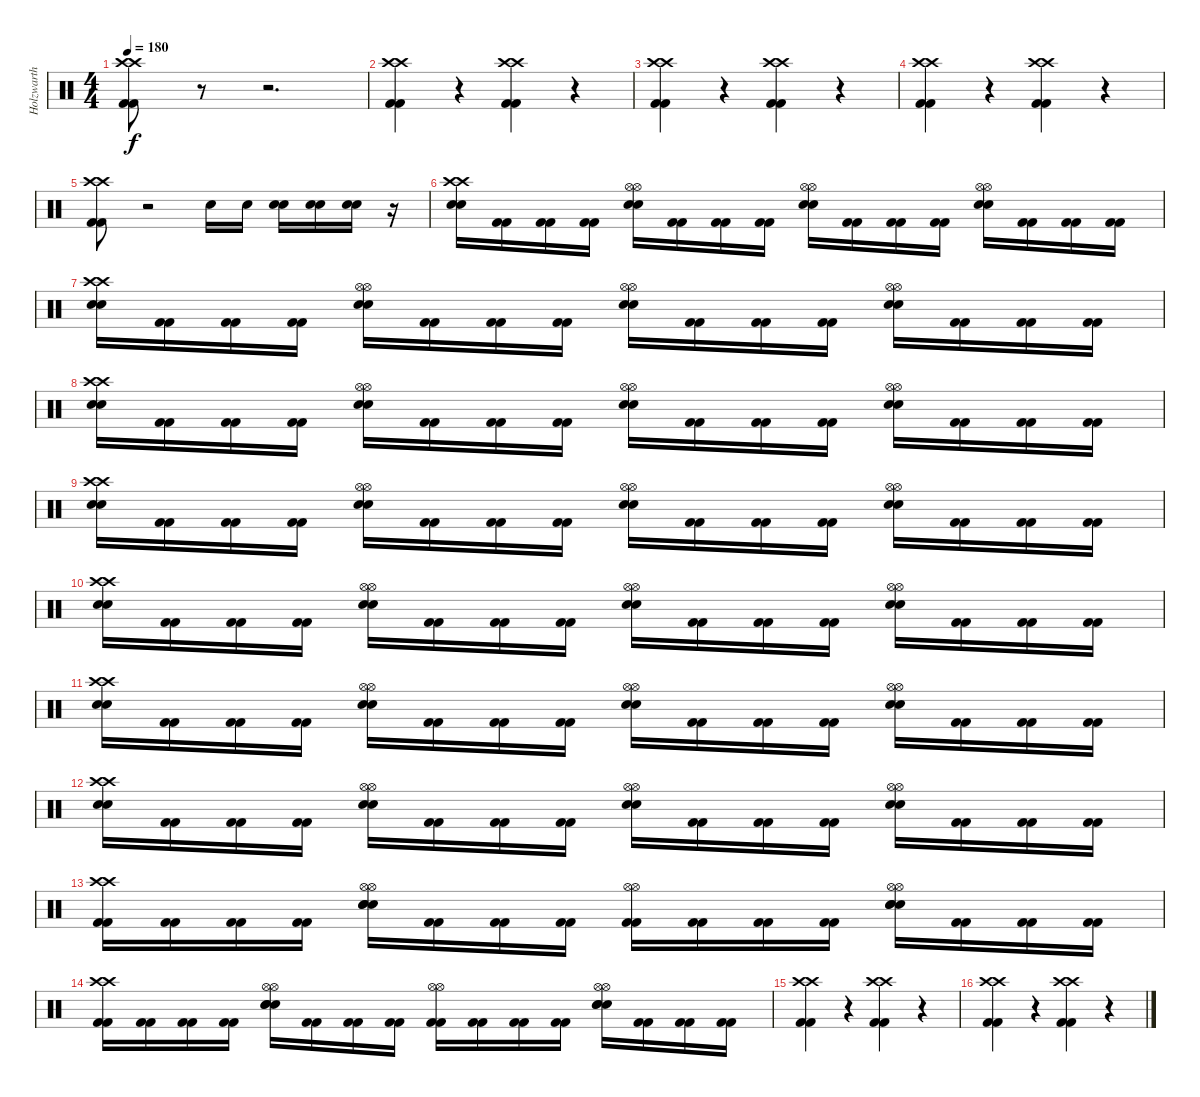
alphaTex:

\track ("Holzwarth" "Holzwarth") {instrument percussion}
\staff {score}
\articulation defaults
\ts (4 4)
\tempo 180
\clef neutral
\ks c
("Kick (hit) 2" "Kick (hit) 2" "Crash high (hit)" "Crash high (hit)").8{dy f} r.8 r.2{d} |
("Kick (hit) 2" "Kick (hit) 2" "Crash high (hit)" "Crash high (hit)").4 r.4 ("Kick (hit) 2" "Kick (hit) 2" "Crash high (hit)" "Crash high (hit)").4 r.4 |
("Kick (hit) 2" "Kick (hit) 2" "Crash high (hit)" "Crash high (hit)").4 r.4 ("Kick (hit) 2" "Kick (hit) 2" "Crash high (hit)" "Crash high (hit)").4 r.4 |
("Kick (hit) 2" "Kick (hit) 2" "Crash high (hit)" "Crash high (hit)").4 r.4 ("Kick (hit) 2" "Kick (hit) 2" "Crash high (hit)" "Crash high (hit)").4 r.4 |
("Kick (hit) 2" "Kick (hit) 2" "Crash high (hit)" "Crash high (hit)").8 r.2 "Snare (hit) 2".16 "Snare (hit) 2".16 ("Snare (hit) 2" "Snare (hit) 2").16 ("Snare (hit) 2" "Snare (hit) 2").16 ("Snare (hit) 2" "Snare (hit) 2").16 r.16 |
("Snare (hit) 2" "Snare (hit) 2" "Crash high (hit)" "Crash high (hit)").16 ("Kick (hit) 2" "Kick (hit) 2").16 ("Kick (hit) 2" "Kick (hit) 2").16 ("Kick (hit) 2" "Kick (hit) 2").16 ("Snare (hit) 2" "Snare (hit) 2" "Hi-Hat (open)" "Hi-Hat (open)").16 ("Kick (hit) 2" "Kick (hit) 2").16 ("Kick (hit) 2" "Kick (hit) 2").16 ("Kick (hit) 2" "Kick (hit) 2").16 ("Snare (hit) 2" "Snare (hit) 2" "Hi-Hat (open)" "Hi-Hat (open)").16 ("Kick (hit) 2" "Kick (hit) 2").16 ("Kick (hit) 2" "Kick (hit) 2").16 ("Kick (hit) 2" "Kick (hit) 2").16 ("Snare (hit) 2" "Snare (hit) 2" "Hi-Hat (open)" "Hi-Hat (open)").16 ("Kick (hit) 2" "Kick (hit) 2").16 ("Kick (hit) 2" "Kick (hit) 2").16 ("Kick (hit) 2" "Kick (hit) 2").16 |
("Snare (hit) 2" "Snare (hit) 2" "Crash high (hit)" "Crash high (hit)").16 ("Kick (hit) 2" "Kick (hit) 2").16 ("Kick (hit) 2" "Kick (hit) 2").16 ("Kick (hit) 2" "Kick (hit) 2").16 ("Snare (hit) 2" "Snare (hit) 2" "Hi-Hat (open)" "Hi-Hat (open)").16 ("Kick (hit) 2" "Kick (hit) 2").16 ("Kick (hit) 2" "Kick (hit) 2").16 ("Kick (hit) 2" "Kick (hit) 2").16 ("Snare (hit) 2" "Snare (hit) 2" "Hi-Hat (open)" "Hi-Hat (open)").16 ("Kick (hit) 2" "Kick (hit) 2").16 ("Kick (hit) 2" "Kick (hit) 2").16 ("Kick (hit) 2" "Kick (hit) 2").16 ("Snare (hit) 2" "Snare (hit) 2" "Hi-Hat (open)" "Hi-Hat (open)").16 ("Kick (hit) 2" "Kick (hit) 2").16 ("Kick (hit) 2" "Kick (hit) 2").16 ("Kick (hit) 2" "Kick (hit) 2").16 |
("Snare (hit) 2" "Snare (hit) 2" "Crash high (hit)" "Crash high (hit)").16 ("Kick (hit) 2" "Kick (hit) 2").16 ("Kick (hit) 2" "Kick (hit) 2").16 ("Kick (hit) 2" "Kick (hit) 2").16 ("Snare (hit) 2" "Snare (hit) 2" "Hi-Hat (open)" "Hi-Hat (open)").16 ("Kick (hit) 2" "Kick (hit) 2").16 ("Kick (hit) 2" "Kick (hit) 2").16 ("Kick (hit) 2" "Kick (hit) 2").16 ("Snare (hit) 2" "Snare (hit) 2" "Hi-Hat (open)" "Hi-Hat (open)").16 ("Kick (hit) 2" "Kick (hit) 2").16 ("Kick (hit) 2" "Kick (hit) 2").16 ("Kick (hit) 2" "Kick (hit) 2").16 ("Snare (hit) 2" "Snare (hit) 2" "Hi-Hat (open)" "Hi-Hat (open)").16 ("Kick (hit) 2" "Kick (hit) 2").16 ("Kick (hit) 2" "Kick (hit) 2").16 ("Kick (hit) 2" "Kick (hit) 2").16 |
("Snare (hit) 2" "Snare (hit) 2" "Crash high (hit)" "Crash high (hit)").16 ("Kick (hit) 2" "Kick (hit) 2").16 ("Kick (hit) 2" "Kick (hit) 2").16 ("Kick (hit) 2" "Kick (hit) 2").16 ("Snare (hit) 2" "Snare (hit) 2" "Hi-Hat (open)" "Hi-Hat (open)").16 ("Kick (hit) 2" "Kick (hit) 2").16 ("Kick (hit) 2" "Kick (hit) 2").16 ("Kick (hit) 2" "Kick (hit) 2").16 ("Snare (hit) 2" "Snare (hit) 2" "Hi-Hat (open)" "Hi-Hat (open)").16 ("Kick (hit) 2" "Kick (hit) 2").16 ("Kick (hit) 2" "Kick (hit) 2").16 ("Kick (hit) 2" "Kick (hit) 2").16 ("Snare (hit) 2" "Snare (hit) 2" "Hi-Hat (open)" "Hi-Hat (open)").16 ("Kick (hit) 2" "Kick (hit) 2").16 ("Kick (hit) 2" "Kick (hit) 2").16 ("Kick (hit) 2" "Kick (hit) 2").16 |
("Snare (hit) 2" "Snare (hit) 2" "Crash high (hit)" "Crash high (hit)").16 ("Kick (hit) 2" "Kick (hit) 2").16 ("Kick (hit) 2" "Kick (hit) 2").16 ("Kick (hit) 2" "Kick (hit) 2").16 ("Snare (hit) 2" "Snare (hit) 2" "Hi-Hat (open)" "Hi-Hat (open)").16 ("Kick (hit) 2" "Kick (hit) 2").16 ("Kick (hit) 2" "Kick (hit) 2").16 ("Kick (hit) 2" "Kick (hit) 2").16 ("Snare (hit) 2" "Snare (hit) 2" "Hi-Hat (open)" "Hi-Hat (open)").16 ("Kick (hit) 2" "Kick (hit) 2").16 ("Kick (hit) 2" "Kick (hit) 2").16 ("Kick (hit) 2" "Kick (hit) 2").16 ("Snare (hit) 2" "Snare (hit) 2" "Hi-Hat (open)" "Hi-Hat (open)").16 ("Kick (hit) 2" "Kick (hit) 2").16 ("Kick (hit) 2" "Kick (hit) 2").16 ("Kick (hit) 2" "Kick (hit) 2").16 |
("Snare (hit) 2" "Snare (hit) 2" "Crash high (hit)" "Crash high (hit)").16 ("Kick (hit) 2" "Kick (hit) 2").16 ("Kick (hit) 2" "Kick (hit) 2").16 ("Kick (hit) 2" "Kick (hit) 2").16 ("Snare (hit) 2" "Snare (hit) 2" "Hi-Hat (open)" "Hi-Hat (open)").16 ("Kick (hit) 2" "Kick (hit) 2").16 ("Kick (hit) 2" "Kick (hit) 2").16 ("Kick (hit) 2" "Kick (hit) 2").16 ("Snare (hit) 2" "Snare (hit) 2" "Hi-Hat (open)" "Hi-Hat (open)").16 ("Kick (hit) 2" "Kick (hit) 2").16 ("Kick (hit) 2" "Kick (hit) 2").16 ("Kick (hit) 2" "Kick (hit) 2").16 ("Snare (hit) 2" "Snare (hit) 2" "Hi-Hat (open)" "Hi-Hat (open)").16 ("Kick (hit) 2" "Kick (hit) 2").16 ("Kick (hit) 2" "Kick (hit) 2").16 ("Kick (hit) 2" "Kick (hit) 2").16 |
("Snare (hit) 2" "Snare (hit) 2" "Crash high (hit)" "Crash high (hit)").16 ("Kick (hit) 2" "Kick (hit) 2").16 ("Kick (hit) 2" "Kick (hit) 2").16 ("Kick (hit) 2" "Kick (hit) 2").16 ("Snare (hit) 2" "Snare (hit) 2" "Hi-Hat (open)" "Hi-Hat (open)").16 ("Kick (hit) 2" "Kick (hit) 2").16 ("Kick (hit) 2" "Kick (hit) 2").16 ("Kick (hit) 2" "Kick (hit) 2").16 ("Snare (hit) 2" "Snare (hit) 2" "Hi-Hat (open)" "Hi-Hat (open)").16 ("Kick (hit) 2" "Kick (hit) 2").16 ("Kick (hit) 2" "Kick (hit) 2").16 ("Kick (hit) 2" "Kick (hit) 2").16 ("Snare (hit) 2" "Snare (hit) 2" "Hi-Hat (open)" "Hi-Hat (open)").16 ("Kick (hit) 2" "Kick (hit) 2").16 ("Kick (hit) 2" "Kick (hit) 2").16 ("Kick (hit) 2" "Kick (hit) 2").16 |
("Kick (hit) 2" "Kick (hit) 2" "Crash high (hit)" "Crash high (hit)").16 ("Kick (hit) 2" "Kick (hit) 2").16 ("Kick (hit) 2" "Kick (hit) 2").16 ("Kick (hit) 2" "Kick (hit) 2").16 ("Snare (hit) 2" "Snare (hit) 2" "Snare (hit) 2" "Hi-Hat (open)" "Hi-Hat (open)").16 ("Kick (hit) 2" "Kick (hit) 2").16 ("Kick (hit) 2" "Kick (hit) 2").16 ("Kick (hit) 2" "Kick (hit) 2").16 ("Kick (hit) 2" "Kick (hit) 2" "Hi-Hat (open)" "Hi-Hat (open)").16 ("Kick (hit) 2" "Kick (hit) 2").16 ("Kick (hit) 2" "Kick (hit) 2").16 ("Kick (hit) 2" "Kick (hit) 2").16 ("Snare (hit) 2" "Snare (hit) 2" "Snare (hit) 2" "Hi-Hat (open)" "Hi-Hat (open)").16 ("Kick (hit) 2" "Kick (hit) 2").16 ("Kick (hit) 2" "Kick (hit) 2").16 ("Kick (hit) 2" "Kick (hit) 2").16 |
("Kick (hit) 2" "Kick (hit) 2" "Crash high (hit)" "Crash high (hit)").16 ("Kick (hit) 2" "Kick (hit) 2").16 ("Kick (hit) 2" "Kick (hit) 2").16 ("Kick (hit) 2" "Kick (hit) 2").16 ("Snare (hit) 2" "Snare (hit) 2" "Snare (hit) 2" "Hi-Hat (open)" "Hi-Hat (open)").16 ("Kick (hit) 2" "Kick (hit) 2").16 ("Kick (hit) 2" "Kick (hit) 2").16 ("Kick (hit) 2" "Kick (hit) 2").16 ("Kick (hit) 2" "Kick (hit) 2" "Hi-Hat (open)" "Hi-Hat (open)").16 ("Kick (hit) 2" "Kick (hit) 2").16 ("Kick (hit) 2" "Kick (hit) 2").16 ("Kick (hit) 2" "Kick (hit) 2").16 ("Snare (hit) 2" "Snare (hit) 2" "Snare (hit) 2" "Hi-Hat (open)" "Hi-Hat (open)").16 ("Kick (hit) 2" "Kick (hit) 2").16 ("Kick (hit) 2" "Kick (hit) 2").16 ("Kick (hit) 2" "Kick (hit) 2").16 |
("Kick (hit) 2" "Kick (hit) 2" "Crash high (hit)" "Crash high (hit)").4 r.4 ("Kick (hit) 2" "Kick (hit) 2" "Crash high (hit)" "Crash high (hit)").4 r.4 |
("Kick (hit) 2" "Kick (hit) 2" "Crash high (hit)" "Crash high (hit)").4 r.4 ("Kick (hit) 2" "Kick (hit) 2" "Crash high (hit)" "Crash high (hit)").4 r.4
